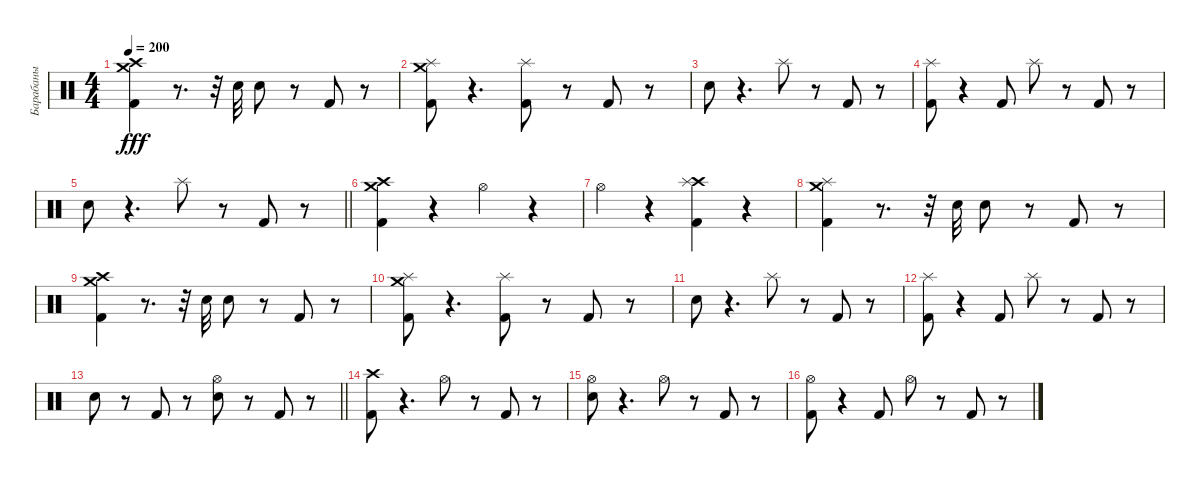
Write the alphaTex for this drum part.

\track ("Барабаны" "Барабаны") {instrument percussion}
\staff {score}
\articulation defaults
\ts (4 4)
\tempo 200
\clef neutral
\ks c
("Kick (hit) 2" "Crash high (hit)" "Crash medium (hit)").4{dy fff} r.8{d} r.32 "Snare (hit) 2".32 "Snare (hit) 2".8 r.8 "Kick (hit) 2".8 r.8 |
("Kick (hit) 2" "Splash (hit)" "Crash medium (hit)").8 r.4{d} ("Kick (hit) 2" "Splash (hit)").8 r.8 "Kick (hit) 2".8 r.8 |
"Snare (hit) 2".8 r.4{d} "Splash (hit)".8 r.8 "Kick (hit) 2".8 r.8 |
("Kick (hit) 2" "Splash (hit)").8 r.4 "Kick (hit) 2".8 "Splash (hit)".8 r.8 "Kick (hit) 2".8 r.8 |
\barLineRight lightlight "Snare (hit) 2".8
r.4{d} "Splash (hit)".8 r.8 "Kick (hit) 2".8 r.8 |
("Kick (hit) 2" "Crash high (hit)" "Crash medium (hit)").4 r.4 "Hi-Hat (open)".4 r.4 |
"Hi-Hat (open)".4 r.4 ("Kick (hit) 2" "Crash high (hit)" "Splash (hit)").4 r.4 |
("Kick (hit) 2" "Splash (hit)" "Crash medium (hit)").4 r.8{d} r.32 "Snare (hit) 2".32 "Snare (hit) 2".8 r.8 "Kick (hit) 2".8 r.8 |
("Kick (hit) 2" "Crash high (hit)" "Crash medium (hit)").4 r.8{d} r.32 "Snare (hit) 2".32 "Snare (hit) 2".8 r.8 "Kick (hit) 2".8 r.8 |
("Kick (hit) 2" "Splash (hit)" "Crash medium (hit)").8 r.4{d} ("Kick (hit) 2" "Splash (hit)").8 r.8 "Kick (hit) 2".8 r.8 |
"Snare (hit) 2".8 r.4{d} "Splash (hit)".8 r.8 "Kick (hit) 2".8 r.8 |
("Kick (hit) 2" "Splash (hit)").8 r.4 "Kick (hit) 2".8 "Splash (hit)".8 r.8 "Kick (hit) 2".8 r.8 |
\barLineRight lightlight "Snare (hit) 2".8
r.8 "Kick (hit) 2".8 r.8 ("Snare (hit) 2" "Hi-Hat (open)").8 r.8 "Kick (hit) 2".8 r.8 |
\section ("" " ")
("Kick (hit) 2" "Crash high (hit)").8 r.4{d} "Hi-Hat (open)".8 r.8 "Kick (hit) 2".8 r.8 |
("Snare (hit) 2" "Hi-Hat (open)").8 r.4{d} "Hi-Hat (open)".8 r.8 "Kick (hit) 2".8 r.8 |
("Kick (hit) 2" "Hi-Hat (open)").8 r.4 "Kick (hit) 2".8 "Hi-Hat (open)".8 r.8 "Kick (hit) 2".8 r.8
